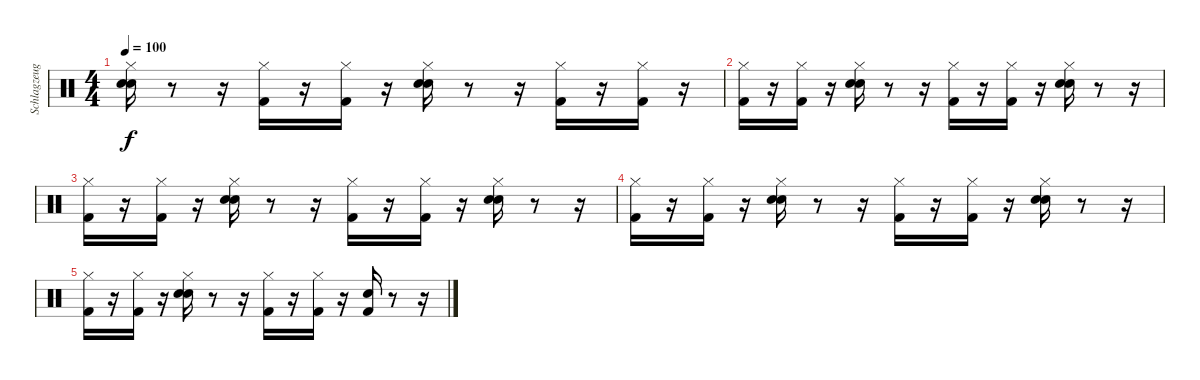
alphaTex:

\track ("Schlagzeug" "Schlagzeug") {instrument percussion}
\staff {score}
\articulation defaults
\ts (4 4)
\tempo 100
\clef neutral
\ks c
("Snare (hit) 2" "Hand Clap (hit)" "Hi-Hat (closed)").16{dy f} r.8 r.16 ("Hi-Hat (closed)" "Kick (hit) 2").16 r.16 ("Hi-Hat (closed)" "Kick (hit) 2").16 r.16 ("Hand Clap (hit)" "Hi-Hat (closed)" "Snare (hit) 2").16 r.8 r.16 ("Hi-Hat (closed)" "Kick (hit) 2").16 r.16 ("Kick (hit) 2" "Hi-Hat (closed)").16 r.16 |
("Kick (hit) 2" "Hi-Hat (closed)").16 r.16 ("Kick (hit) 2" "Hi-Hat (closed)").16 r.16 ("Snare (hit) 2" "Hand Clap (hit)" "Hi-Hat (closed)").16 r.8 r.16 ("Hi-Hat (closed)" "Kick (hit) 2").16 r.16 ("Hi-Hat (closed)" "Kick (hit) 2").16 r.16 ("Hi-Hat (closed)" "Snare (hit) 2" "Hand Clap (hit)").16 r.8 r.16 |
("Hi-Hat (closed)" "Kick (hit) 2").16 r.16 ("Hi-Hat (closed)" "Kick (hit) 2").16 r.16 ("Hi-Hat (closed)" "Hand Clap (hit)" "Snare (hit) 2").16 r.8 r.16 ("Kick (hit) 2" "Hi-Hat (closed)").16 r.16 ("Kick (hit) 2" "Hi-Hat (closed)").16 r.16 ("Hi-Hat (closed)" "Snare (hit) 2" "Hand Clap (hit)").16 r.8 r.16 |
("Hi-Hat (closed)" "Kick (hit) 2").16 r.16 ("Kick (hit) 2" "Hi-Hat (closed)").16 r.16 ("Hand Clap (hit)" "Snare (hit) 2" "Hi-Hat (closed)").16 r.8 r.16 ("Hi-Hat (closed)" "Kick (hit) 2").16 r.16 ("Hi-Hat (closed)" "Kick (hit) 2").16 r.16 ("Hi-Hat (closed)" "Snare (hit) 2" "Hand Clap (hit)").16 r.8 r.16 |
("Hi-Hat (closed)" "Kick (hit) 2").16 r.16 ("Kick (hit) 2" "Hi-Hat (closed)").16 r.16 ("Snare (hit) 2" "Hi-Hat (closed)" "Hand Clap (hit)").16 r.8 r.16 ("Kick (hit) 2" "Hi-Hat (closed)").16 r.16 ("Kick (hit) 2" "Hi-Hat (closed)").16 r.16 ("Kick (hit) 2" "Hand Clap (hit)").16 r.8 r.16
